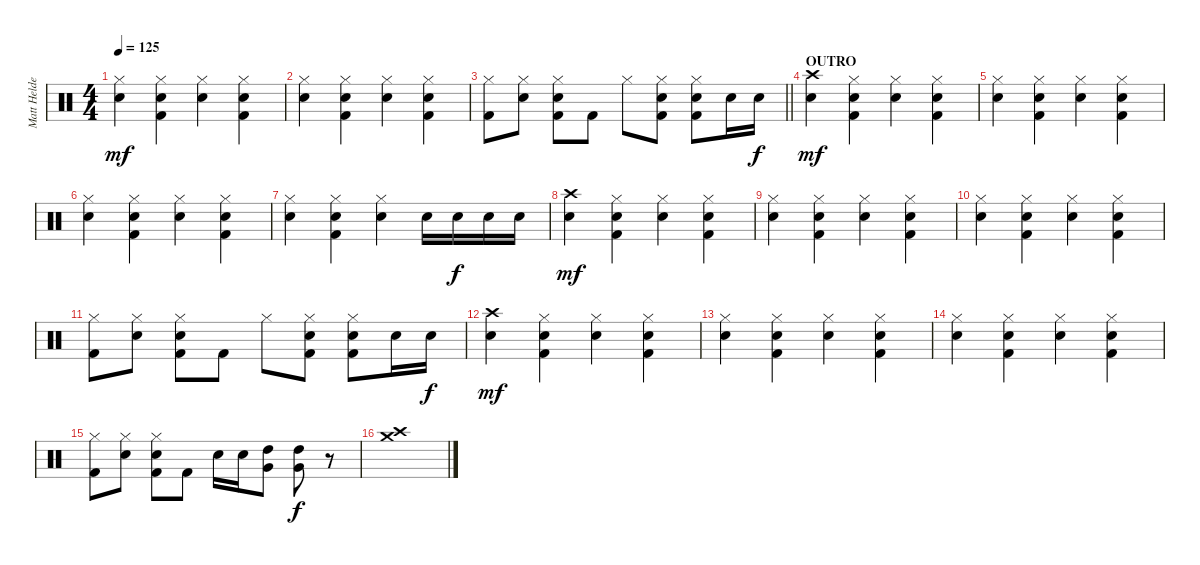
\track ("Matt Helders" "Matt Helde") {instrument percussion}
\staff {score}
\articulation defaults
\ts (4 4)
\tempo 125
\clef neutral
\ks c
("Hi-Hat (closed)" "Electric Snare (hit)").4{dy mf} ("Hi-Hat (closed)" "Electric Snare (hit)" "Kick (hit) 2").4 ("Hi-Hat (closed)" "Electric Snare (hit)").4 ("Hi-Hat (closed)" "Electric Snare (hit)" "Kick (hit) 2").4 |
("Hi-Hat (closed)" "Electric Snare (hit)").4 ("Hi-Hat (closed)" "Electric Snare (hit)" "Kick (hit) 2").4 ("Hi-Hat (closed)" "Electric Snare (hit)").4 ("Hi-Hat (closed)" "Electric Snare (hit)" "Kick (hit) 2").4 |
\barLineRight lightlight
("Hi-Hat (closed)" "Kick (hit) 2").8 ("Hi-Hat (closed)" "Electric Snare (hit)").8 ("Hi-Hat (closed)" "Electric Snare (hit)" "Kick (hit) 2").8 "Kick (hit) 2".8 "Hi-Hat (closed)".8 ("Hi-Hat (closed)" "Electric Snare (hit)" "Kick (hit) 2").8 ("Hi-Hat (closed)" "Electric Snare (hit)" "Kick (hit) 2").8 "Electric Snare (hit)".16 "Electric Snare (hit)".16{dy f} |
\section ("" "OUTRO")
("Crash high (hit)" "Electric Snare (hit)").4{dy mf} ("Hi-Hat (closed)" "Electric Snare (hit)" "Kick (hit) 2").4 ("Hi-Hat (closed)" "Electric Snare (hit)").4 ("Hi-Hat (closed)" "Electric Snare (hit)" "Kick (hit) 2").4 |
("Hi-Hat (closed)" "Electric Snare (hit)").4 ("Hi-Hat (closed)" "Electric Snare (hit)" "Kick (hit) 2").4 ("Hi-Hat (closed)" "Electric Snare (hit)").4 ("Hi-Hat (closed)" "Electric Snare (hit)" "Kick (hit) 2").4 |
("Hi-Hat (closed)" "Electric Snare (hit)").4 ("Hi-Hat (closed)" "Electric Snare (hit)" "Kick (hit) 2").4 ("Hi-Hat (closed)" "Electric Snare (hit)").4 ("Hi-Hat (closed)" "Electric Snare (hit)" "Kick (hit) 2").4 |
("Hi-Hat (closed)" "Electric Snare (hit)").4 ("Hi-Hat (closed)" "Electric Snare (hit)" "Kick (hit) 2").4 ("Hi-Hat (closed)" "Electric Snare (hit)").4 "Electric Snare (hit)".16 "Electric Snare (hit)".16{dy f} "Electric Snare (hit)".16 "Electric Snare (hit)".16 |
("Crash high (hit)" "Electric Snare (hit)").4{dy mf} ("Hi-Hat (closed)" "Electric Snare (hit)" "Kick (hit) 2").4 ("Hi-Hat (closed)" "Electric Snare (hit)").4 ("Hi-Hat (closed)" "Electric Snare (hit)" "Kick (hit) 2").4 |
("Hi-Hat (closed)" "Electric Snare (hit)").4 ("Hi-Hat (closed)" "Electric Snare (hit)" "Kick (hit) 2").4 ("Hi-Hat (closed)" "Electric Snare (hit)").4 ("Hi-Hat (closed)" "Electric Snare (hit)" "Kick (hit) 2").4 |
("Hi-Hat (closed)" "Electric Snare (hit)").4 ("Hi-Hat (closed)" "Electric Snare (hit)" "Kick (hit) 2").4 ("Hi-Hat (closed)" "Electric Snare (hit)").4 ("Hi-Hat (closed)" "Electric Snare (hit)" "Kick (hit) 2").4 |
("Hi-Hat (closed)" "Kick (hit) 2").8 ("Hi-Hat (closed)" "Electric Snare (hit)").8 ("Hi-Hat (closed)" "Electric Snare (hit)" "Kick (hit) 2").8 "Kick (hit) 2".8 "Hi-Hat (closed)".8 ("Hi-Hat (closed)" "Electric Snare (hit)" "Kick (hit) 2").8 ("Hi-Hat (closed)" "Electric Snare (hit)" "Kick (hit) 2").8 "Electric Snare (hit)".16 "Electric Snare (hit)".16{dy f} |
("Crash high (hit)" "Electric Snare (hit)").4{dy mf} ("Hi-Hat (closed)" "Electric Snare (hit)" "Kick (hit) 2").4 ("Hi-Hat (closed)" "Electric Snare (hit)").4 ("Hi-Hat (closed)" "Electric Snare (hit)" "Kick (hit) 2").4 |
("Hi-Hat (closed)" "Electric Snare (hit)").4 ("Hi-Hat (closed)" "Electric Snare (hit)" "Kick (hit) 2").4 ("Hi-Hat (closed)" "Electric Snare (hit)").4 ("Hi-Hat (closed)" "Electric Snare (hit)" "Kick (hit) 2").4 |
("Hi-Hat (closed)" "Electric Snare (hit)").4 ("Hi-Hat (closed)" "Electric Snare (hit)" "Kick (hit) 2").4 ("Hi-Hat (closed)" "Electric Snare (hit)").4 ("Hi-Hat (closed)" "Electric Snare (hit)" "Kick (hit) 2").4 |
("Hi-Hat (closed)" "Kick (hit) 2").8 ("Hi-Hat (closed)" "Electric Snare (hit)").8 ("Hi-Hat (closed)" "Electric Snare (hit)" "Kick (hit) 2").8 "Kick (hit) 2".8 "Electric Snare (hit)".16 "Electric Snare (hit)".16 ("High Tom (hit)" "Very Low Tom (hit)").8 ("High Tom (hit)" "Very Low Tom (hit)").8{dy f} r.8 |
("Crash high (hit)" "Crash medium (hit)").1
